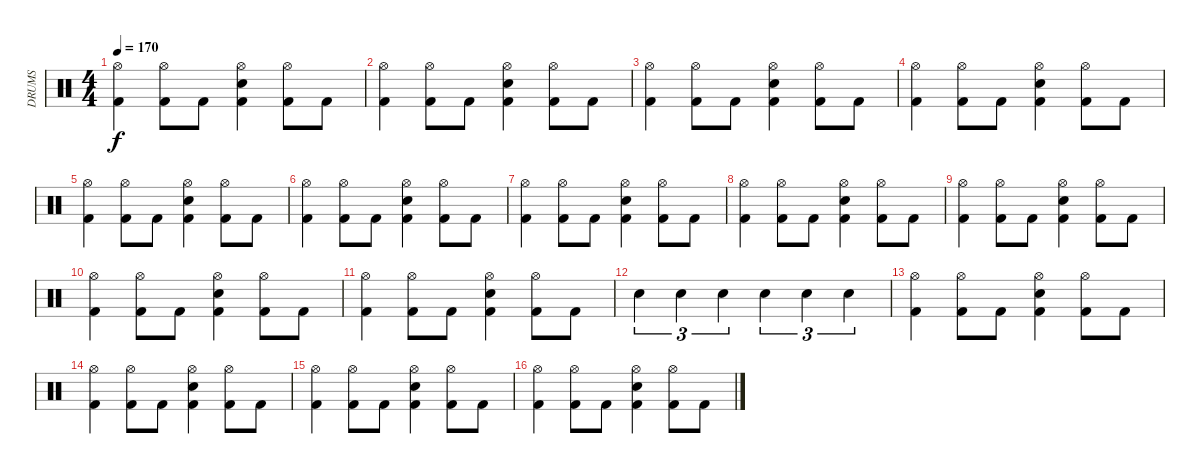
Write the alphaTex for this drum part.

\track ("DRUMS" "DRUMS") {instrument percussion}
\staff {score}
\articulation defaults
\ts (4 4)
\tempo 170
\clef neutral
\ks c
("Hi-Hat (open)" "Kick (hit) 2").4{dy f} ("Hi-Hat (open)" "Kick (hit) 2").8 "Kick (hit) 2".8 ("Hi-Hat (open)" "Snare (hit) 2" "Kick (hit) 2").4 ("Hi-Hat (open)" "Kick (hit) 2").8 "Kick (hit) 2".8 |
("Hi-Hat (open)" "Kick (hit) 2").4 ("Hi-Hat (open)" "Kick (hit) 2").8 "Kick (hit) 2".8 ("Hi-Hat (open)" "Snare (hit) 2" "Kick (hit) 2").4 ("Hi-Hat (open)" "Kick (hit) 2").8 "Kick (hit) 2".8 |
("Hi-Hat (open)" "Kick (hit) 2").4 ("Hi-Hat (open)" "Kick (hit) 2").8 "Kick (hit) 2".8 ("Hi-Hat (open)" "Snare (hit) 2" "Kick (hit) 2").4 ("Hi-Hat (open)" "Kick (hit) 2").8 "Kick (hit) 2".8 |
("Hi-Hat (open)" "Kick (hit) 2").4 ("Hi-Hat (open)" "Kick (hit) 2").8 "Kick (hit) 2".8 ("Hi-Hat (open)" "Snare (hit) 2" "Kick (hit) 2").4 ("Hi-Hat (open)" "Kick (hit) 2").8 "Kick (hit) 2".8 |
("Hi-Hat (open)" "Kick (hit) 2").4 ("Hi-Hat (open)" "Kick (hit) 2").8 "Kick (hit) 2".8 ("Hi-Hat (open)" "Snare (hit) 2" "Kick (hit) 2").4 ("Hi-Hat (open)" "Kick (hit) 2").8 "Kick (hit) 2".8 |
("Hi-Hat (open)" "Kick (hit) 2").4 ("Hi-Hat (open)" "Kick (hit) 2").8 "Kick (hit) 2".8 ("Hi-Hat (open)" "Snare (hit) 2" "Kick (hit) 2").4 ("Hi-Hat (open)" "Kick (hit) 2").8 "Kick (hit) 2".8 |
("Hi-Hat (open)" "Kick (hit) 2").4 ("Hi-Hat (open)" "Kick (hit) 2").8 "Kick (hit) 2".8 ("Hi-Hat (open)" "Snare (hit) 2" "Kick (hit) 2").4 ("Hi-Hat (open)" "Kick (hit) 2").8 "Kick (hit) 2".8 |
("Hi-Hat (open)" "Kick (hit) 2").4 ("Hi-Hat (open)" "Kick (hit) 2").8 "Kick (hit) 2".8 ("Hi-Hat (open)" "Snare (hit) 2" "Kick (hit) 2").4 ("Hi-Hat (open)" "Kick (hit) 2").8 "Kick (hit) 2".8 |
("Hi-Hat (open)" "Kick (hit) 2").4 ("Hi-Hat (open)" "Kick (hit) 2").8 "Kick (hit) 2".8 ("Hi-Hat (open)" "Snare (hit) 2" "Kick (hit) 2").4 ("Hi-Hat (open)" "Kick (hit) 2").8 "Kick (hit) 2".8 |
("Hi-Hat (open)" "Kick (hit) 2").4 ("Hi-Hat (open)" "Kick (hit) 2").8 "Kick (hit) 2".8 ("Hi-Hat (open)" "Snare (hit) 2" "Kick (hit) 2").4 ("Hi-Hat (open)" "Kick (hit) 2").8 "Kick (hit) 2".8 |
("Hi-Hat (open)" "Kick (hit) 2").4 ("Hi-Hat (open)" "Kick (hit) 2").8 "Kick (hit) 2".8 ("Hi-Hat (open)" "Snare (hit) 2" "Kick (hit) 2").4 ("Hi-Hat (open)" "Kick (hit) 2").8 "Kick (hit) 2".8 |
"Snare (hit) 2".4{tu (3 2)} "Snare (hit) 2".4{tu (3 2)} "Snare (hit) 2".4{tu (3 2)} "Snare (hit) 2".4{tu (3 2)} "Snare (hit) 2".4{tu (3 2)} "Snare (hit) 2".4{tu (3 2)} |
("Hi-Hat (open)" "Kick (hit) 2").4 ("Hi-Hat (open)" "Kick (hit) 2").8 "Kick (hit) 2".8 ("Hi-Hat (open)" "Snare (hit) 2" "Kick (hit) 2").4 ("Hi-Hat (open)" "Kick (hit) 2").8 "Kick (hit) 2".8 |
("Hi-Hat (open)" "Kick (hit) 2").4 ("Hi-Hat (open)" "Kick (hit) 2").8 "Kick (hit) 2".8 ("Hi-Hat (open)" "Snare (hit) 2" "Kick (hit) 2").4 ("Hi-Hat (open)" "Kick (hit) 2").8 "Kick (hit) 2".8 |
("Hi-Hat (open)" "Kick (hit) 2").4 ("Hi-Hat (open)" "Kick (hit) 2").8 "Kick (hit) 2".8 ("Hi-Hat (open)" "Snare (hit) 2" "Kick (hit) 2").4 ("Hi-Hat (open)" "Kick (hit) 2").8 "Kick (hit) 2".8 |
("Hi-Hat (open)" "Kick (hit) 2").4 ("Hi-Hat (open)" "Kick (hit) 2").8 "Kick (hit) 2".8 ("Hi-Hat (open)" "Snare (hit) 2" "Kick (hit) 2").4 ("Hi-Hat (open)" "Kick (hit) 2").8 "Kick (hit) 2".8
